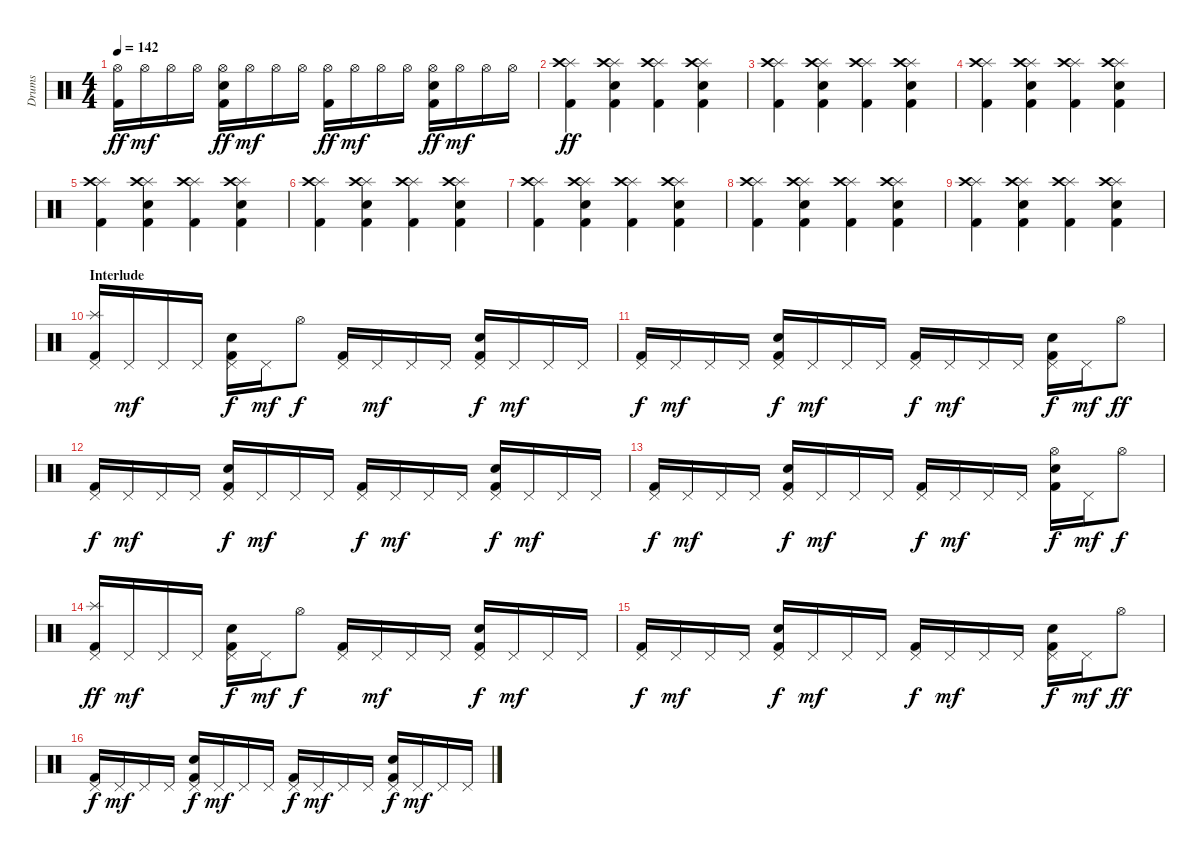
\track ("Drums" "Drums") {instrument percussion}
\staff {score}
\articulation defaults
\ts (4 4)
\tempo 142
\clef neutral
\ks c
("Hi-Hat (open)" "Kick (hit) 2").16{dy ff} "Hi-Hat (open)".16{dy mf} "Hi-Hat (open)".16 "Hi-Hat (open)".16 ("Hi-Hat (open)" "Snare (hit) 2" "Kick (hit) 2").16{dy ff} "Hi-Hat (open)".16{dy mf} "Hi-Hat (open)".16 "Hi-Hat (open)".16 ("Hi-Hat (open)" "Kick (hit) 2").16{dy ff} "Hi-Hat (open)".16{dy mf} "Hi-Hat (open)".16 "Hi-Hat (open)".16 ("Hi-Hat (open)" "Snare (hit) 2" "Kick (hit) 2").16{dy ff} "Hi-Hat (open)".16{dy mf} "Hi-Hat (open)".16 "Hi-Hat (open)".16 |
("Splash (hit)" "Crash high (hit)" "Kick (hit) 2").4{dy ff} ("Splash (hit)" "Crash high (hit)" "Snare (hit) 2" "Kick (hit) 2").4 ("Splash (hit)" "Crash high (hit)" "Kick (hit) 2").4 ("Splash (hit)" "Crash high (hit)" "Snare (hit) 2" "Kick (hit) 2").4 |
("Splash (hit)" "Crash high (hit)" "Kick (hit) 2").4 ("Splash (hit)" "Crash high (hit)" "Snare (hit) 2" "Kick (hit) 2").4 ("Splash (hit)" "Crash high (hit)" "Kick (hit) 2").4 ("Splash (hit)" "Crash high (hit)" "Snare (hit) 2" "Kick (hit) 2").4 |
("Splash (hit)" "Crash high (hit)" "Kick (hit) 2").4 ("Splash (hit)" "Crash high (hit)" "Snare (hit) 2" "Kick (hit) 2").4 ("Splash (hit)" "Crash high (hit)" "Kick (hit) 2").4 ("Splash (hit)" "Crash high (hit)" "Snare (hit) 2" "Kick (hit) 2").4 |
("Splash (hit)" "Crash high (hit)" "Kick (hit) 2").4 ("Splash (hit)" "Crash high (hit)" "Snare (hit) 2" "Kick (hit) 2").4 ("Splash (hit)" "Crash high (hit)" "Kick (hit) 2").4 ("Splash (hit)" "Crash high (hit)" "Snare (hit) 2" "Kick (hit) 2").4 |
("Splash (hit)" "Crash high (hit)" "Kick (hit) 2").4 ("Splash (hit)" "Crash high (hit)" "Snare (hit) 2" "Kick (hit) 2").4 ("Splash (hit)" "Crash high (hit)" "Kick (hit) 2").4 ("Splash (hit)" "Crash high (hit)" "Snare (hit) 2" "Kick (hit) 2").4 |
("Splash (hit)" "Crash high (hit)" "Kick (hit) 2").4 ("Splash (hit)" "Crash high (hit)" "Snare (hit) 2" "Kick (hit) 2").4 ("Splash (hit)" "Crash high (hit)" "Kick (hit) 2").4 ("Splash (hit)" "Crash high (hit)" "Snare (hit) 2" "Kick (hit) 2").4 |
("Splash (hit)" "Crash high (hit)" "Kick (hit) 2").4 ("Splash (hit)" "Crash high (hit)" "Snare (hit) 2" "Kick (hit) 2").4 ("Splash (hit)" "Crash high (hit)" "Kick (hit) 2").4 ("Splash (hit)" "Crash high (hit)" "Snare (hit) 2" "Kick (hit) 2").4 |
("Splash (hit)" "Crash high (hit)" "Kick (hit) 2").4 ("Splash (hit)" "Crash high (hit)" "Snare (hit) 2" "Kick (hit) 2").4 ("Splash (hit)" "Crash high (hit)" "Kick (hit) 2").4 ("Splash (hit)" "Crash high (hit)" "Snare (hit) 2" "Kick (hit) 2").4 |
\section ("" "Interlude")
("Pedal Hi-Hat (hit)" "Splash (hit)" "Kick (hit) 2").16 "Pedal Hi-Hat (hit)".16{dy mf} "Pedal Hi-Hat (hit)".16 "Pedal Hi-Hat (hit)".16 ("Pedal Hi-Hat (hit)" "Snare (hit) 2" "Kick (hit) 2").16{dy f} "Pedal Hi-Hat (hit)".16{dy mf} "Hi-Hat (open)".8{dy f} ("Pedal Hi-Hat (hit)" "Kick (hit) 2").16 "Pedal Hi-Hat (hit)".16{dy mf} "Pedal Hi-Hat (hit)".16 "Pedal Hi-Hat (hit)".16 ("Pedal Hi-Hat (hit)" "Snare (hit) 2" "Kick (hit) 2").16{dy f} "Pedal Hi-Hat (hit)".16{dy mf} "Pedal Hi-Hat (hit)".16 "Pedal Hi-Hat (hit)".16 |
("Pedal Hi-Hat (hit)" "Kick (hit) 2").16{dy f} "Pedal Hi-Hat (hit)".16{dy mf} "Pedal Hi-Hat (hit)".16 "Pedal Hi-Hat (hit)".16 ("Pedal Hi-Hat (hit)" "Snare (hit) 2" "Kick (hit) 2").16{dy f} "Pedal Hi-Hat (hit)".16{dy mf} "Pedal Hi-Hat (hit)".16 "Pedal Hi-Hat (hit)".16 ("Pedal Hi-Hat (hit)" "Kick (hit) 2").16{dy f} "Pedal Hi-Hat (hit)".16{dy mf} "Pedal Hi-Hat (hit)".16 "Pedal Hi-Hat (hit)".16 ("Pedal Hi-Hat (hit)" "Snare (hit) 2" "Kick (hit) 2").16{dy f} "Pedal Hi-Hat (hit)".16{dy mf} "Hi-Hat (open)".8{dy ff} |
("Pedal Hi-Hat (hit)" "Kick (hit) 2").16{dy f} "Pedal Hi-Hat (hit)".16{dy mf} "Pedal Hi-Hat (hit)".16 "Pedal Hi-Hat (hit)".16 ("Pedal Hi-Hat (hit)" "Snare (hit) 2" "Kick (hit) 2").16{dy f} "Pedal Hi-Hat (hit)".16{dy mf} "Pedal Hi-Hat (hit)".16 "Pedal Hi-Hat (hit)".16 ("Pedal Hi-Hat (hit)" "Kick (hit) 2").16{dy f} "Pedal Hi-Hat (hit)".16{dy mf} "Pedal Hi-Hat (hit)".16 "Pedal Hi-Hat (hit)".16 ("Pedal Hi-Hat (hit)" "Snare (hit) 2" "Kick (hit) 2").16{dy f} "Pedal Hi-Hat (hit)".16{dy mf} "Pedal Hi-Hat (hit)".16 "Pedal Hi-Hat (hit)".16 |
("Pedal Hi-Hat (hit)" "Kick (hit) 2").16{dy f} "Pedal Hi-Hat (hit)".16{dy mf} "Pedal Hi-Hat (hit)".16 "Pedal Hi-Hat (hit)".16 ("Pedal Hi-Hat (hit)" "Snare (hit) 2" "Kick (hit) 2").16{dy f} "Pedal Hi-Hat (hit)".16{dy mf} "Pedal Hi-Hat (hit)".16 "Pedal Hi-Hat (hit)".16 ("Pedal Hi-Hat (hit)" "Kick (hit) 2").16{dy f} "Pedal Hi-Hat (hit)".16{dy mf} "Pedal Hi-Hat (hit)".16 "Pedal Hi-Hat (hit)".16 ("Hi-Hat (open)" "Snare (hit) 2" "Kick (hit) 2").16{dy f} "Pedal Hi-Hat (hit)".16{dy mf} "Hi-Hat (open)".8{dy f} |
("Pedal Hi-Hat (hit)" "Splash (hit)" "Kick (hit) 2").16{dy ff} "Pedal Hi-Hat (hit)".16{dy mf} "Pedal Hi-Hat (hit)".16 "Pedal Hi-Hat (hit)".16 ("Pedal Hi-Hat (hit)" "Snare (hit) 2" "Kick (hit) 2").16{dy f} "Pedal Hi-Hat (hit)".16{dy mf} "Hi-Hat (open)".8{dy f} ("Pedal Hi-Hat (hit)" "Kick (hit) 2").16 "Pedal Hi-Hat (hit)".16{dy mf} "Pedal Hi-Hat (hit)".16 "Pedal Hi-Hat (hit)".16 ("Pedal Hi-Hat (hit)" "Snare (hit) 2" "Kick (hit) 2").16{dy f} "Pedal Hi-Hat (hit)".16{dy mf} "Pedal Hi-Hat (hit)".16 "Pedal Hi-Hat (hit)".16 |
("Pedal Hi-Hat (hit)" "Kick (hit) 2").16{dy f} "Pedal Hi-Hat (hit)".16{dy mf} "Pedal Hi-Hat (hit)".16 "Pedal Hi-Hat (hit)".16 ("Pedal Hi-Hat (hit)" "Snare (hit) 2" "Kick (hit) 2").16{dy f} "Pedal Hi-Hat (hit)".16{dy mf} "Pedal Hi-Hat (hit)".16 "Pedal Hi-Hat (hit)".16 ("Pedal Hi-Hat (hit)" "Kick (hit) 2").16{dy f} "Pedal Hi-Hat (hit)".16{dy mf} "Pedal Hi-Hat (hit)".16 "Pedal Hi-Hat (hit)".16 ("Pedal Hi-Hat (hit)" "Snare (hit) 2" "Kick (hit) 2").16{dy f} "Pedal Hi-Hat (hit)".16{dy mf} "Hi-Hat (open)".8{dy ff} |
("Pedal Hi-Hat (hit)" "Kick (hit) 2").16{dy f} "Pedal Hi-Hat (hit)".16{dy mf} "Pedal Hi-Hat (hit)".16 "Pedal Hi-Hat (hit)".16 ("Pedal Hi-Hat (hit)" "Snare (hit) 2" "Kick (hit) 2").16{dy f} "Pedal Hi-Hat (hit)".16{dy mf} "Pedal Hi-Hat (hit)".16 "Pedal Hi-Hat (hit)".16 ("Pedal Hi-Hat (hit)" "Kick (hit) 2").16{dy f} "Pedal Hi-Hat (hit)".16{dy mf} "Pedal Hi-Hat (hit)".16 "Pedal Hi-Hat (hit)".16 ("Pedal Hi-Hat (hit)" "Snare (hit) 2" "Kick (hit) 2").16{dy f} "Pedal Hi-Hat (hit)".16{dy mf} "Pedal Hi-Hat (hit)".16 "Pedal Hi-Hat (hit)".16
